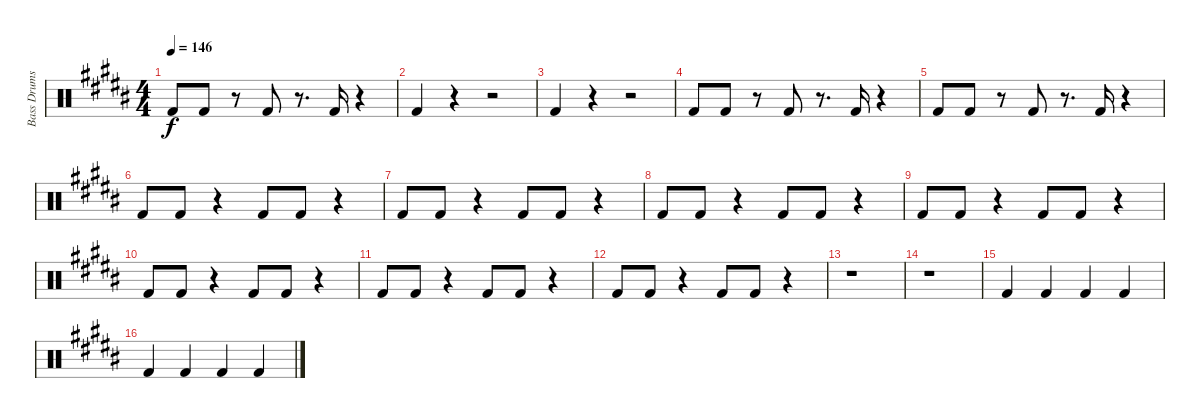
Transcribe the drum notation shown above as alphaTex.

\track ("Bass Drums" "Bass Drums") {instrument percussion}
\staff {score}
\articulation defaults
\ts (4 4)
\tempo 146
\clef neutral
\ks b "Kick (hit) 2".8{dy f} "Kick (hit) 2".8
r.8 "Kick (hit) 2".8 r.8{d} "Kick (hit) 2".16 r.4 |
"Kick (hit) 2".4 r.4 r.2 |
"Kick (hit) 2".4 r.4 r.2 |
"Kick (hit) 2".8 "Kick (hit) 2".8 r.8 "Kick (hit) 2".8 r.8{d} "Kick (hit) 2".16 r.4 |
"Kick (hit) 2".8 "Kick (hit) 2".8 r.8 "Kick (hit) 2".8 r.8{d} "Kick (hit) 2".16 r.4 |
"Kick (hit) 2".8 "Kick (hit) 2".8 r.4 "Kick (hit) 2".8 "Kick (hit) 2".8 r.4 |
"Kick (hit) 2".8 "Kick (hit) 2".8 r.4 "Kick (hit) 2".8 "Kick (hit) 2".8 r.4 |
"Kick (hit) 2".8 "Kick (hit) 2".8 r.4 "Kick (hit) 2".8 "Kick (hit) 2".8 r.4 |
"Kick (hit) 2".8 "Kick (hit) 2".8 r.4 "Kick (hit) 2".8 "Kick (hit) 2".8 r.4 |
"Kick (hit) 2".8 "Kick (hit) 2".8 r.4 "Kick (hit) 2".8 "Kick (hit) 2".8 r.4 |
"Kick (hit) 2".8 "Kick (hit) 2".8 r.4 "Kick (hit) 2".8 "Kick (hit) 2".8 r.4 |
"Kick (hit) 2".8 "Kick (hit) 2".8 r.4 "Kick (hit) 2".8 "Kick (hit) 2".8 r.4 |
r.1 |
r.1 |
"Kick (hit) 2".4 "Kick (hit) 2".4 "Kick (hit) 2".4 "Kick (hit) 2".4 |
"Kick (hit) 2".4 "Kick (hit) 2".4 "Kick (hit) 2".4 "Kick (hit) 2".4
